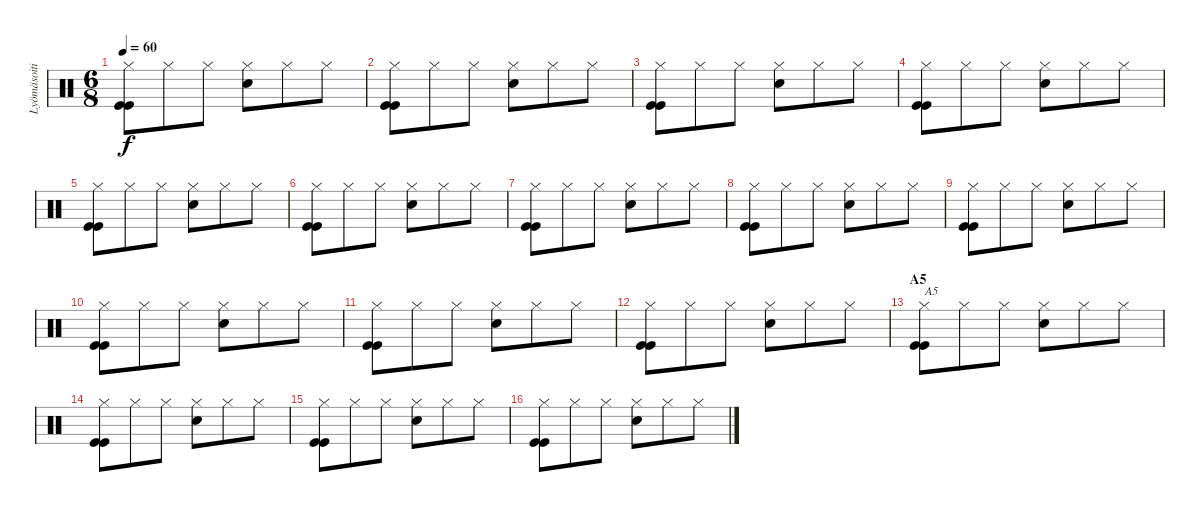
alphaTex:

\track ("Lyömäsoitin" "Lyömäsoiti") {instrument percussion}
\staff {score}
\articulation defaults
\ts (6 8)
\tempo 60
\clef neutral
\ks c
("Hi-Hat (closed)" "Kick (hit)" "Kick (hit)").8{dy f} "Hi-Hat (closed)".8 "Hi-Hat (closed)".8 ("Hi-Hat (closed)" "Snare (hit) 2").8 "Hi-Hat (closed)".8 "Hi-Hat (closed)".8 |
("Hi-Hat (closed)" "Kick (hit)" "Kick (hit)").8 "Hi-Hat (closed)".8 "Hi-Hat (closed)".8 ("Hi-Hat (closed)" "Snare (hit) 2").8 "Hi-Hat (closed)".8 "Hi-Hat (closed)".8 |
("Hi-Hat (closed)" "Kick (hit)" "Kick (hit)").8 "Hi-Hat (closed)".8 "Hi-Hat (closed)".8 ("Hi-Hat (closed)" "Snare (hit) 2").8 "Hi-Hat (closed)".8 "Hi-Hat (closed)".8 |
("Hi-Hat (closed)" "Kick (hit)" "Kick (hit)").8 "Hi-Hat (closed)".8 "Hi-Hat (closed)".8 ("Hi-Hat (closed)" "Snare (hit) 2").8 "Hi-Hat (closed)".8 "Hi-Hat (closed)".8 |
("Hi-Hat (closed)" "Kick (hit)" "Kick (hit)").8 "Hi-Hat (closed)".8 "Hi-Hat (closed)".8 ("Hi-Hat (closed)" "Snare (hit) 2").8 "Hi-Hat (closed)".8 "Hi-Hat (closed)".8 |
("Hi-Hat (closed)" "Kick (hit)" "Kick (hit)").8 "Hi-Hat (closed)".8 "Hi-Hat (closed)".8 ("Hi-Hat (closed)" "Snare (hit) 2").8 "Hi-Hat (closed)".8 "Hi-Hat (closed)".8 |
("Hi-Hat (closed)" "Kick (hit)" "Kick (hit)").8 "Hi-Hat (closed)".8 "Hi-Hat (closed)".8 ("Hi-Hat (closed)" "Snare (hit) 2").8 "Hi-Hat (closed)".8 "Hi-Hat (closed)".8 |
("Hi-Hat (closed)" "Kick (hit)" "Kick (hit)").8 "Hi-Hat (closed)".8 "Hi-Hat (closed)".8 ("Hi-Hat (closed)" "Snare (hit) 2").8 "Hi-Hat (closed)".8 "Hi-Hat (closed)".8 |
("Hi-Hat (closed)" "Kick (hit)" "Kick (hit)").8 "Hi-Hat (closed)".8 "Hi-Hat (closed)".8 ("Hi-Hat (closed)" "Snare (hit) 2").8 "Hi-Hat (closed)".8 "Hi-Hat (closed)".8 |
("Hi-Hat (closed)" "Kick (hit)" "Kick (hit)").8 "Hi-Hat (closed)".8 "Hi-Hat (closed)".8 ("Hi-Hat (closed)" "Snare (hit) 2").8 "Hi-Hat (closed)".8 "Hi-Hat (closed)".8 |
("Hi-Hat (closed)" "Kick (hit)" "Kick (hit)").8 "Hi-Hat (closed)".8 "Hi-Hat (closed)".8 ("Hi-Hat (closed)" "Snare (hit) 2").8 "Hi-Hat (closed)".8 "Hi-Hat (closed)".8 |
("Hi-Hat (closed)" "Kick (hit)" "Kick (hit)").8 "Hi-Hat (closed)".8 "Hi-Hat (closed)".8 ("Hi-Hat (closed)" "Snare (hit) 2").8 "Hi-Hat (closed)".8 "Hi-Hat (closed)".8 |
\section ("" "A5")
("Hi-Hat (closed)" "Kick (hit)" "Kick (hit)").8{txt "A5"} "Hi-Hat (closed)".8 "Hi-Hat (closed)".8 ("Hi-Hat (closed)" "Snare (hit) 2").8 "Hi-Hat (closed)".8 "Hi-Hat (closed)".8 |
("Hi-Hat (closed)" "Kick (hit)" "Kick (hit)").8 "Hi-Hat (closed)".8 "Hi-Hat (closed)".8 ("Hi-Hat (closed)" "Snare (hit) 2").8 "Hi-Hat (closed)".8 "Hi-Hat (closed)".8 |
("Hi-Hat (closed)" "Kick (hit)" "Kick (hit)").8 "Hi-Hat (closed)".8 "Hi-Hat (closed)".8 ("Hi-Hat (closed)" "Snare (hit) 2").8 "Hi-Hat (closed)".8 "Hi-Hat (closed)".8 |
("Hi-Hat (closed)" "Kick (hit)" "Kick (hit)").8 "Hi-Hat (closed)".8 "Hi-Hat (closed)".8 ("Hi-Hat (closed)" "Snare (hit) 2").8 "Hi-Hat (closed)".8 "Hi-Hat (closed)".8
